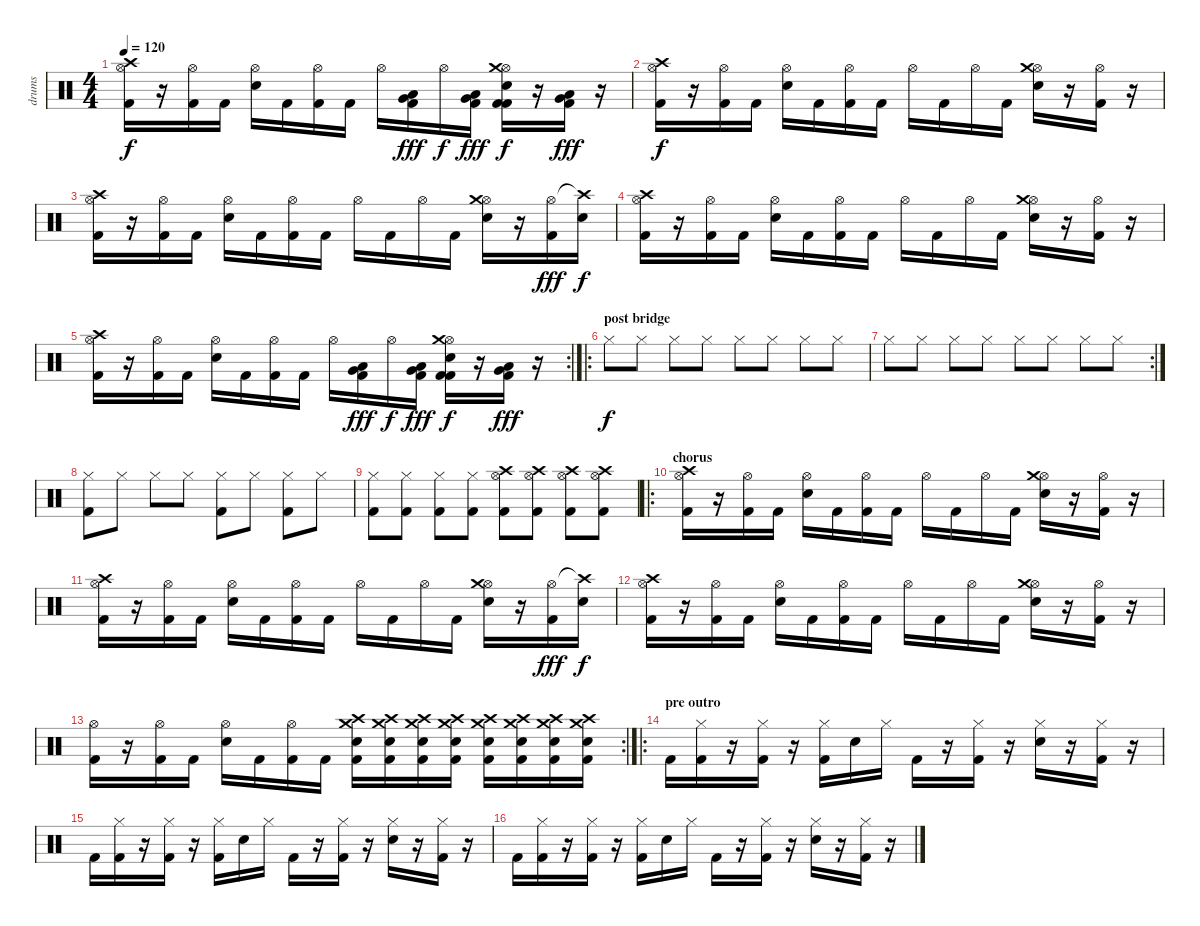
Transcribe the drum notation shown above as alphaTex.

\track ("drums" "drums") {instrument percussion}
\staff {score}
\articulation defaults
\ts (4 4)
\tempo 120
\clef neutral
\ks c
("Hi-Hat (open)" "Crash high (hit)" "Kick (hit) 2").16{dy f} r.16 ("Hi-Hat (open)" "Kick (hit) 2").16 "Kick (hit) 2".16 ("Hi-Hat (open)" "Electric Snare (hit)").16 "Kick (hit) 2".16 ("Hi-Hat (open)" "Kick (hit) 2").16 "Kick (hit) 2".16 "Hi-Hat (open)".16 ("Low Floor Tom (hit)" "Very Low Tom (hit)" "Kick (hit) 2").16{dy fff} "Hi-Hat (open)".16{dy f} ("Low Floor Tom (hit)" "Very Low Tom (hit)" "Kick (hit) 2").16{dy fff} ("Hi-Hat (open)" "Crash medium (hit)" "Kick (hit) 2" "Kick (hit) 2" "Electric Snare (hit)").16{dy f} r.16 ("Low Floor Tom (hit)" "Very Low Tom (hit)" "Kick (hit) 2").16{dy fff} r.16 |
("Hi-Hat (open)" "Crash high (hit)" "Kick (hit) 2").16{dy f} r.16 ("Hi-Hat (open)" "Kick (hit) 2").16 "Kick (hit) 2".16 ("Hi-Hat (open)" "Electric Snare (hit)").16 "Kick (hit) 2".16 ("Hi-Hat (open)" "Kick (hit) 2").16 "Kick (hit) 2".16 "Hi-Hat (open)".16 "Kick (hit) 2".16 "Hi-Hat (open)".16 "Kick (hit) 2".16 ("Hi-Hat (open)" "Crash medium (hit)" "Electric Snare (hit)").16 r.16 ("Hi-Hat (open)" "Kick (hit) 2").16 r.16 |
("Hi-Hat (open)" "Crash high (hit)" "Kick (hit) 2").16 r.16 ("Hi-Hat (open)" "Kick (hit) 2").16 "Kick (hit) 2".16 ("Hi-Hat (open)" "Electric Snare (hit)").16 "Kick (hit) 2".16 ("Hi-Hat (open)" "Kick (hit) 2").16 "Kick (hit) 2".16 "Hi-Hat (open)".16 "Kick (hit) 2".16 "Hi-Hat (open)".16 "Kick (hit) 2".16 ("Hi-Hat (open)" "Crash medium (hit)" "Electric Snare (hit)").16 r.16 ("Hi-Hat (open)" "Kick (hit) 2").16{dy fff} ("Crash high (hit)"{t} "Electric Snare (hit)").16{dy f} |
("Hi-Hat (open)" "Crash high (hit)" "Kick (hit) 2").16 r.16 ("Hi-Hat (open)" "Kick (hit) 2").16 "Kick (hit) 2".16 ("Hi-Hat (open)" "Electric Snare (hit)").16 "Kick (hit) 2".16 ("Hi-Hat (open)" "Kick (hit) 2").16 "Kick (hit) 2".16 "Hi-Hat (open)".16 "Kick (hit) 2".16 "Hi-Hat (open)".16 "Kick (hit) 2".16 ("Hi-Hat (open)" "Crash medium (hit)" "Electric Snare (hit)").16 r.16 ("Hi-Hat (open)" "Kick (hit) 2").16 r.16 |
\rc 2
("Hi-Hat (open)" "Crash high (hit)" "Kick (hit) 2").16 r.16 ("Hi-Hat (open)" "Kick (hit) 2").16 "Kick (hit) 2".16 ("Hi-Hat (open)" "Electric Snare (hit)").16 "Kick (hit) 2".16 ("Hi-Hat (open)" "Kick (hit) 2").16 "Kick (hit) 2".16 "Hi-Hat (open)".16 ("Low Floor Tom (hit)" "Very Low Tom (hit)" "Kick (hit) 2").16{dy fff} "Hi-Hat (open)".16{dy f} ("Low Floor Tom (hit)" "Very Low Tom (hit)" "Kick (hit) 2").16{dy fff} ("Hi-Hat (open)" "Crash medium (hit)" "Kick (hit) 2" "Kick (hit) 2" "Electric Snare (hit)").16{dy f} r.16 ("Low Floor Tom (hit)" "Very Low Tom (hit)" "Kick (hit) 2").16{dy fff} r.16 |
\ro
\section ("" "post bridge")
"Hi-Hat (closed)".8{dy f} "Hi-Hat (closed)".8 "Hi-Hat (closed)".8 "Hi-Hat (closed)".8 "Hi-Hat (closed)".8 "Hi-Hat (closed)".8 "Hi-Hat (closed)".8 "Hi-Hat (closed)".8 |
\rc 2 "Hi-Hat (closed)".8 "Hi-Hat (closed)".8 "Hi-Hat (closed)".8 "Hi-Hat (closed)".8 "Hi-Hat (closed)".8 "Hi-Hat (closed)".8 "Hi-Hat (closed)".8 "Hi-Hat (closed)".8
|
("Kick (hit) 2" "Hi-Hat (closed)").8 "Hi-Hat (closed)".8 "Hi-Hat (closed)".8 "Hi-Hat (closed)".8 ("Kick (hit) 2" "Hi-Hat (closed)").8 "Hi-Hat (closed)".8 ("Kick (hit) 2" "Hi-Hat (closed)").8 "Hi-Hat (closed)".8 |
("Kick (hit) 2" "Hi-Hat (closed)").8 ("Kick (hit) 2" "Hi-Hat (closed)").8 ("Kick (hit) 2" "Hi-Hat (closed)").8 ("Kick (hit) 2" "Hi-Hat (closed)").8 ("Kick (hit) 2" "Hi-Hat (open)" "Crash high (hit)").8 ("Kick (hit) 2" "Hi-Hat (open)" "Crash high (hit)").8 ("Kick (hit) 2" "Hi-Hat (open)" "Crash high (hit)").8 ("Kick (hit) 2" "Hi-Hat (open)" "Crash high (hit)").8 |
\ro
\section ("" "chorus")
("Hi-Hat (open)" "Crash high (hit)" "Kick (hit) 2").16 r.16 ("Hi-Hat (open)" "Kick (hit) 2").16 "Kick (hit) 2".16 ("Hi-Hat (open)" "Electric Snare (hit)").16 "Kick (hit) 2".16 ("Hi-Hat (open)" "Kick (hit) 2").16 "Kick (hit) 2".16 "Hi-Hat (open)".16 "Kick (hit) 2".16 "Hi-Hat (open)".16 "Kick (hit) 2".16 ("Hi-Hat (open)" "Crash medium (hit)" "Electric Snare (hit)").16 r.16 ("Hi-Hat (open)" "Kick (hit) 2").16 r.16 |
("Hi-Hat (open)" "Crash high (hit)" "Kick (hit) 2").16 r.16 ("Hi-Hat (open)" "Kick (hit) 2").16 "Kick (hit) 2".16 ("Hi-Hat (open)" "Electric Snare (hit)").16 "Kick (hit) 2".16 ("Hi-Hat (open)" "Kick (hit) 2").16 "Kick (hit) 2".16 "Hi-Hat (open)".16 "Kick (hit) 2".16 "Hi-Hat (open)".16 "Kick (hit) 2".16 ("Hi-Hat (open)" "Crash medium (hit)" "Electric Snare (hit)").16 r.16 ("Hi-Hat (open)" "Kick (hit) 2").16{dy fff} ("Crash high (hit)"{t} "Electric Snare (hit)").16{dy f} |
("Hi-Hat (open)" "Crash high (hit)" "Kick (hit) 2").16 r.16 ("Hi-Hat (open)" "Kick (hit) 2").16 "Kick (hit) 2".16 ("Hi-Hat (open)" "Electric Snare (hit)").16 "Kick (hit) 2".16 ("Hi-Hat (open)" "Kick (hit) 2").16 "Kick (hit) 2".16 "Hi-Hat (open)".16 "Kick (hit) 2".16 "Hi-Hat (open)".16 "Kick (hit) 2".16 ("Hi-Hat (open)" "Crash medium (hit)" "Electric Snare (hit)").16 r.16 ("Hi-Hat (open)" "Kick (hit) 2").16 r.16 |
\rc 2
("Hi-Hat (open)" "Kick (hit) 2").16 r.16 ("Hi-Hat (open)" "Kick (hit) 2").16 "Kick (hit) 2".16 ("Hi-Hat (open)" "Electric Snare (hit)").16 "Kick (hit) 2".16 ("Hi-Hat (open)" "Kick (hit) 2").16 "Kick (hit) 2".16 ("Crash high (hit)" "Crash medium (hit)" "Electric Snare (hit)" "Kick (hit) 2").16 ("Crash high (hit)" "Crash medium (hit)" "Electric Snare (hit)" "Kick (hit) 2").16 ("Crash high (hit)" "Crash medium (hit)" "Electric Snare (hit)" "Kick (hit) 2").16 ("Crash high (hit)" "Crash medium (hit)" "Electric Snare (hit)" "Kick (hit) 2").16 ("Crash high (hit)" "Crash medium (hit)" "Electric Snare (hit)" "Kick (hit) 2").16 ("Crash high (hit)" "Crash medium (hit)" "Electric Snare (hit)" "Kick (hit) 2").16 ("Crash high (hit)" "Crash medium (hit)" "Electric Snare (hit)" "Kick (hit) 2").16 ("Crash high (hit)" "Crash medium (hit)" "Electric Snare (hit)" "Kick (hit) 2").16 |
\ro
\section ("" "pre outro")
"Kick (hit) 2".16 ("Hi-Hat (closed)" "Kick (hit) 2").16 r.16 ("Hi-Hat (closed)" "Kick (hit) 2").16 r.16 ("Hi-Hat (closed)" "Kick (hit) 2").16 "Electric Snare (hit)".16 "Hi-Hat (closed)".16 "Kick (hit) 2".16 r.16 ("Hi-Hat (closed)" "Kick (hit) 2").16 r.16 ("Hi-Hat (closed)" "Electric Snare (hit)").16 r.16 ("Hi-Hat (closed)" "Kick (hit) 2").16 r.16 |
"Kick (hit) 2".16 ("Hi-Hat (closed)" "Kick (hit) 2").16 r.16 ("Hi-Hat (closed)" "Kick (hit) 2").16 r.16 ("Hi-Hat (closed)" "Kick (hit) 2").16 "Electric Snare (hit)".16 "Hi-Hat (closed)".16 "Kick (hit) 2".16 r.16 ("Hi-Hat (closed)" "Kick (hit) 2").16 r.16 ("Hi-Hat (closed)" "Electric Snare (hit)").16 r.16 ("Hi-Hat (closed)" "Kick (hit) 2").16 r.16 |
"Kick (hit) 2".16 ("Hi-Hat (closed)" "Kick (hit) 2").16 r.16 ("Hi-Hat (closed)" "Kick (hit) 2").16 r.16 ("Hi-Hat (closed)" "Kick (hit) 2").16 "Electric Snare (hit)".16 "Hi-Hat (closed)".16 "Kick (hit) 2".16 r.16 ("Hi-Hat (closed)" "Kick (hit) 2").16 r.16 ("Hi-Hat (closed)" "Electric Snare (hit)").16 r.16 ("Hi-Hat (closed)" "Kick (hit) 2").16 r.16
